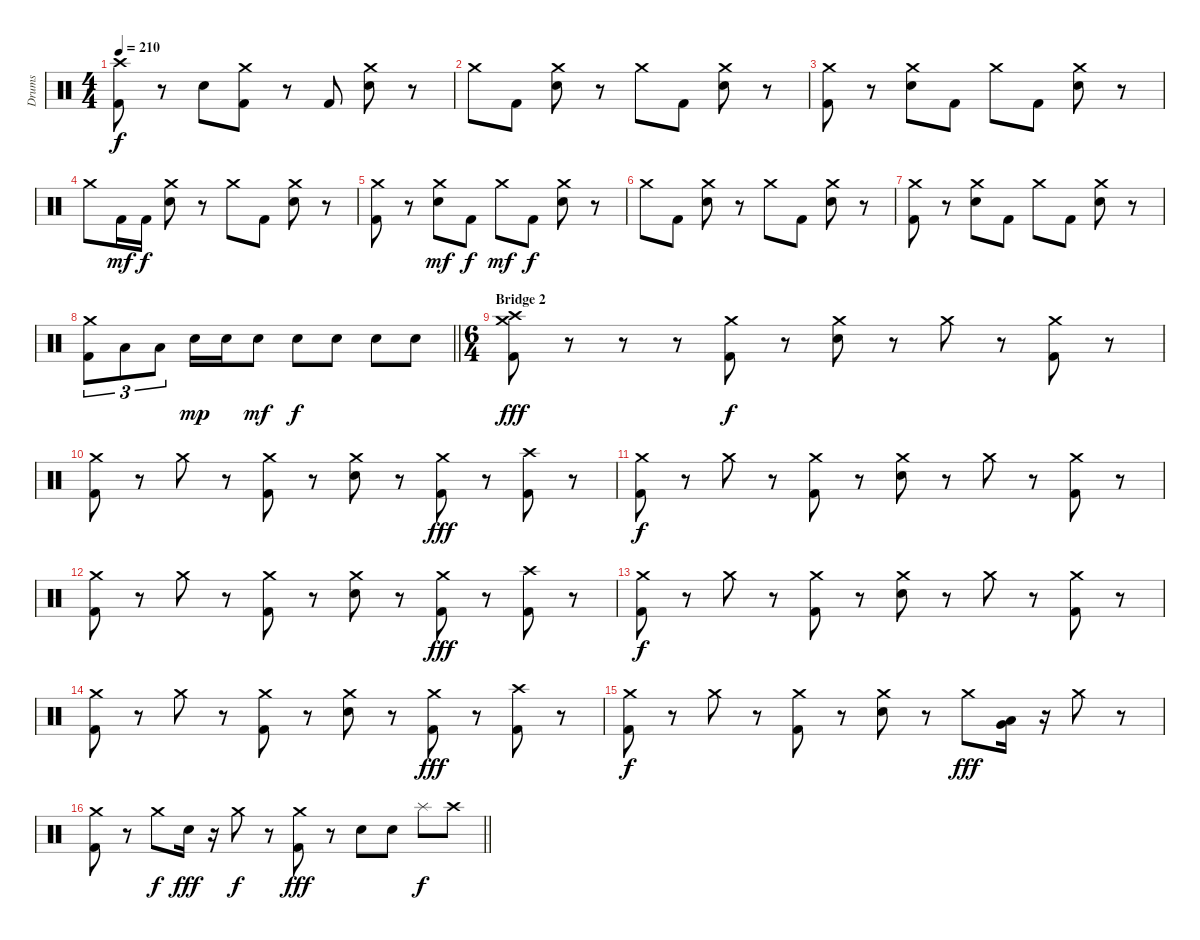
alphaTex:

\track ("Drums" "Drums") {instrument percussion}
\staff {score}
\articulation defaults
\ts (4 4)
\tempo 210
\clef neutral
\ks c
("Crash high (hit)" "Kick (hit) 2").8{dy f} r.8 "Electric Snare (hit)".8 ("Crash medium (hit)" "Kick (hit) 2").8 r.8 "Kick (hit) 2".8 ("Crash medium (hit)" "Electric Snare (hit)").8 r.8 |
"Crash medium (hit)".8 "Kick (hit) 2".8 ("Crash medium (hit)" "Electric Snare (hit)").8 r.8 "Crash medium (hit)".8 "Kick (hit) 2".8 ("Crash medium (hit)" "Electric Snare (hit)").8 r.8 |
("Crash medium (hit)" "Kick (hit) 2").8 r.8 ("Crash medium (hit)" "Electric Snare (hit)").8 "Kick (hit) 2".8 "Crash medium (hit)".8 "Kick (hit) 2".8 ("Crash medium (hit)" "Electric Snare (hit)").8 r.8 |
"Crash medium (hit)".8 "Kick (hit) 2".16{dy mf} "Kick (hit) 2".16{dy f} ("Crash medium (hit)" "Electric Snare (hit)").8 r.8 "Crash medium (hit)".8 "Kick (hit) 2".8 ("Crash medium (hit)" "Electric Snare (hit)").8 r.8 |
("Crash medium (hit)" "Kick (hit) 2").8 r.8 ("Crash medium (hit)" "Electric Snare (hit)").8{dy mf} "Kick (hit) 2".8{dy f} "Crash medium (hit)".8{dy mf} "Kick (hit) 2".8{dy f} ("Crash medium (hit)" "Electric Snare (hit)").8 r.8 |
"Crash medium (hit)".8 "Kick (hit) 2".8 ("Crash medium (hit)" "Electric Snare (hit)").8 r.8 "Crash medium (hit)".8 "Kick (hit) 2".8 ("Crash medium (hit)" "Electric Snare (hit)").8 r.8 |
("Crash medium (hit)" "Kick (hit) 2").8 r.8 ("Crash medium (hit)" "Electric Snare (hit)").8 "Kick (hit) 2".8 "Crash medium (hit)".8 "Kick (hit) 2".8 ("Crash medium (hit)" "Electric Snare (hit)").8 r.8 |
\barLineRight lightlight
("Crash medium (hit)" "Kick (hit) 2").8{tu (3 2)} "Low Tom (hit)".8{tu (3 2)} "Low Tom (hit)".8{tu (3 2)} "Electric Snare (hit)".16{dy mp} "Electric Snare (hit)".16 "Electric Snare (hit)".8{dy mf} "Electric Snare (hit)".8{dy f} "Electric Snare (hit)".8 "Electric Snare (hit)".8 "Electric Snare (hit)".8 |
\ts (6 4)
\section ("" "Bridge 2")
("Crash high (hit)" "Crash medium (hit)" "Kick (hit) 2").8{dy fff} r.8 r.8 r.8 ("Crash medium (hit)" "Kick (hit) 2").8{dy f} r.8 ("Crash medium (hit)" "Electric Snare (hit)").8 r.8 "Crash medium (hit)".8 r.8 ("Crash medium (hit)" "Kick (hit) 2").8 r.8 |
("Crash medium (hit)" "Kick (hit) 2").8 r.8 "Crash medium (hit)".8 r.8 ("Crash medium (hit)" "Kick (hit) 2").8 r.8 ("Crash medium (hit)" "Electric Snare (hit)").8 r.8 ("Crash medium (hit)" "Kick (hit) 2").8{dy fff} r.8 ("Crash high (hit)" "Kick (hit) 2").8 r.8 |
("Crash medium (hit)" "Kick (hit) 2").8{dy f} r.8 "Crash medium (hit)".8 r.8 ("Crash medium (hit)" "Kick (hit) 2").8 r.8 ("Crash medium (hit)" "Electric Snare (hit)").8 r.8 "Crash medium (hit)".8 r.8 ("Crash medium (hit)" "Kick (hit) 2").8 r.8 |
("Crash medium (hit)" "Kick (hit) 2").8 r.8 "Crash medium (hit)".8 r.8 ("Crash medium (hit)" "Kick (hit) 2").8 r.8 ("Crash medium (hit)" "Electric Snare (hit)").8 r.8 ("Crash medium (hit)" "Kick (hit) 2").8{dy fff} r.8 ("Crash high (hit)" "Kick (hit) 2").8 r.8 |
("Crash medium (hit)" "Kick (hit) 2").8{dy f} r.8 "Crash medium (hit)".8 r.8 ("Crash medium (hit)" "Kick (hit) 2").8 r.8 ("Crash medium (hit)" "Electric Snare (hit)").8 r.8 "Crash medium (hit)".8 r.8 ("Crash medium (hit)" "Kick (hit) 2").8 r.8 |
("Crash medium (hit)" "Kick (hit) 2").8 r.8 "Crash medium (hit)".8 r.8 ("Crash medium (hit)" "Kick (hit) 2").8 r.8 ("Crash medium (hit)" "Electric Snare (hit)").8 r.8 ("Crash medium (hit)" "Kick (hit) 2").8{dy fff} r.8 ("Crash high (hit)" "Kick (hit) 2").8 r.8 |
("Crash medium (hit)" "Kick (hit) 2").8{dy f} r.8 "Crash medium (hit)".8 r.8 ("Crash medium (hit)" "Kick (hit) 2").8 r.8 ("Crash medium (hit)" "Electric Snare (hit)").8 r.8 "Crash medium (hit)".8{dy fff} ("Very Low Tom (hit)" "Low Floor Tom (hit)").16 r.16 "Crash medium (hit)".8 r.8 |
\barLineRight lightlight
("Crash medium (hit)" "Kick (hit) 2").8 r.8 "Crash medium (hit)".8{dy f} "Electric Snare (hit)".16{dy fff} r.16 "Crash medium (hit)".8{dy f} r.8 ("Crash medium (hit)" "Kick (hit) 2").8{dy fff} r.8 "Electric Snare (hit)".8 "Electric Snare (hit)".8 "Splash (hit)".8{dy f} "Crash high (hit)".8
